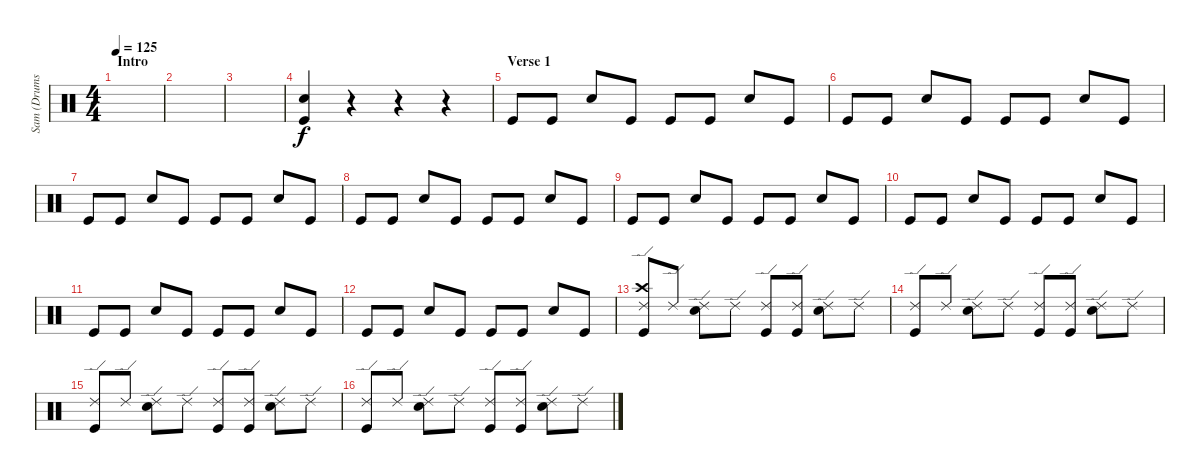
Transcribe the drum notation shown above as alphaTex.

\track ("Sam (Drums)" "Sam (Drums") {instrument percussion}
\staff {score}
\articulation defaults
\ts (4 4)
\section ("" "Intro")
\tempo 125
\clef neutral
\ks c
|
|
|
("Snare (hit) 2" "Kick (hit)").4 r.4 r.4 r.4 |
\section ("" "Verse 1")
"Kick (hit)".8 "Kick (hit)".8 "Snare (hit) 2".8 "Kick (hit)".8 "Kick (hit)".8 "Kick (hit)".8 "Snare (hit) 2".8 "Kick (hit)".8 |
"Kick (hit)".8 "Kick (hit)".8 "Snare (hit) 2".8 "Kick (hit)".8 "Kick (hit)".8 "Kick (hit)".8 "Snare (hit) 2".8 "Kick (hit)".8 |
"Kick (hit)".8 "Kick (hit)".8 "Snare (hit) 2".8 "Kick (hit)".8 "Kick (hit)".8 "Kick (hit)".8 "Snare (hit) 2".8 "Kick (hit)".8 |
"Kick (hit)".8 "Kick (hit)".8 "Snare (hit) 2".8 "Kick (hit)".8 "Kick (hit)".8 "Kick (hit)".8 "Snare (hit) 2".8 "Kick (hit)".8 |
"Kick (hit)".8 "Kick (hit)".8 "Snare (hit) 2".8 "Kick (hit)".8 "Kick (hit)".8 "Kick (hit)".8 "Snare (hit) 2".8 "Kick (hit)".8 |
"Kick (hit)".8 "Kick (hit)".8 "Snare (hit) 2".8 "Kick (hit)".8 "Kick (hit)".8 "Kick (hit)".8 "Snare (hit) 2".8 "Kick (hit)".8 |
"Kick (hit)".8 "Kick (hit)".8 "Snare (hit) 2".8 "Kick (hit)".8 "Kick (hit)".8 "Kick (hit)".8 "Snare (hit) 2".8 "Kick (hit)".8 |
"Kick (hit)".8 "Kick (hit)".8 "Snare (hit) 2".8 "Kick (hit)".8 "Kick (hit)".8 "Kick (hit)".8 "Snare (hit) 2".8 "Kick (hit)".8 |
("Crash high (hit)" "Ride (edge) 2" "Kick (hit)").8 "Ride (edge) 2".8 ("Ride (edge) 2" "Snare (hit) 2").8 "Ride (edge) 2".8 ("Ride (edge) 2" "Kick (hit)").8 ("Ride (edge) 2" "Kick (hit)").8 ("Ride (edge) 2" "Snare (hit) 2").8 "Ride (edge) 2".8 |
("Ride (edge) 2" "Kick (hit)").8 "Ride (edge) 2".8 ("Ride (edge) 2" "Snare (hit) 2").8 "Ride (edge) 2".8 ("Ride (edge) 2" "Kick (hit)").8 ("Ride (edge) 2" "Kick (hit)").8 ("Ride (edge) 2" "Snare (hit) 2").8 "Ride (edge) 2".8 |
("Ride (edge) 2" "Kick (hit)").8 "Ride (edge) 2".8 ("Ride (edge) 2" "Snare (hit) 2").8 "Ride (edge) 2".8 ("Ride (edge) 2" "Kick (hit)").8 ("Ride (edge) 2" "Kick (hit)").8 ("Ride (edge) 2" "Snare (hit) 2").8 "Ride (edge) 2".8 |
("Ride (edge) 2" "Kick (hit)").8 "Ride (edge) 2".8 ("Ride (edge) 2" "Snare (hit) 2").8 "Ride (edge) 2".8 ("Ride (edge) 2" "Kick (hit)").8 ("Ride (edge) 2" "Kick (hit)").8 ("Ride (edge) 2" "Snare (hit) 2").8 "Ride (edge) 2".8
